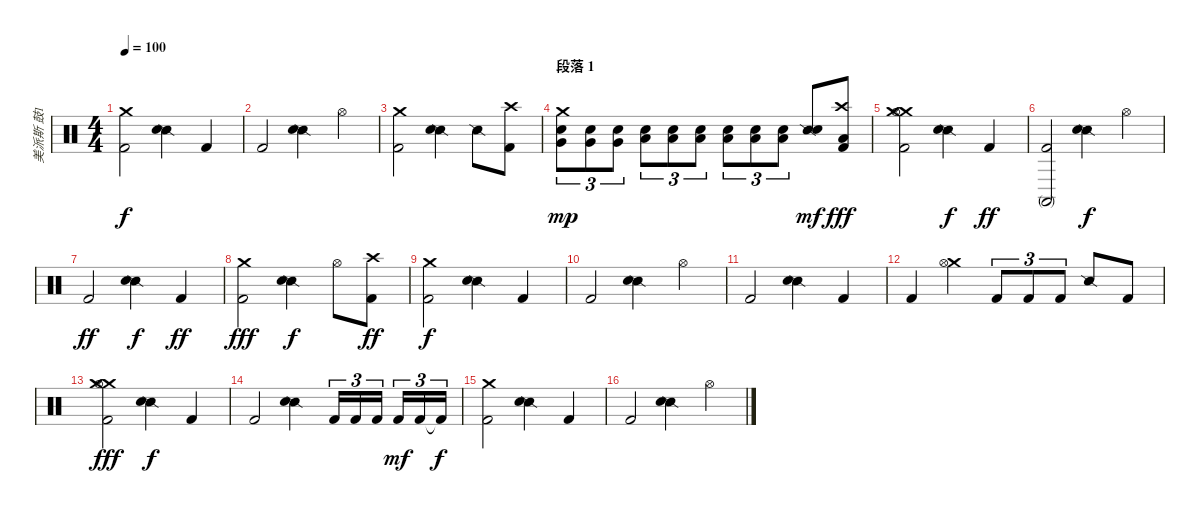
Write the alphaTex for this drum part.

\track ("美派斯 鼓1" "美派斯 鼓1") {instrument percussion}
\staff {score}
\articulation defaults
\ts (4 4)
\tempo 100
\clef neutral
\ks c
("Crash medium (hit)" "Kick (hit) 2").2{dy f} ("Snare (side stick) 2" "Snare (hit) 2").4 "Kick (hit) 2".4 |
"Kick (hit) 2".2 ("Snare (side stick) 2" "Snare (hit) 2").4 "Hi-Hat (open)".4 |
("Crash medium (hit)" "Kick (hit) 2").2 ("Snare (side stick) 2" "Snare (hit) 2").4 "Snare (side stick) 2".8 ("Crash high (hit)" "Kick (hit) 2").8 |
\section ("" "段落 1")
("Crash medium (hit)" "Very Low Tom (hit)" "Snare (hit) 2").8{tu (3 2) dy mp} ("Very Low Tom (hit)" "Snare (hit) 2").8{tu (3 2)} ("Very Low Tom (hit)" "Snare (hit) 2").8{tu (3 2)} ("Low Floor Tom (hit)" "Snare (hit) 2").8{tu (3 2)} ("Low Floor Tom (hit)" "Snare (hit) 2").8{tu (3 2)} ("Low Floor Tom (hit)" "Snare (hit) 2").8{tu (3 2)} ("Low Tom (hit)" "Snare (hit) 2").8{tu (3 2)} ("Low Tom (hit)" "Snare (hit) 2").8{tu (3 2)} ("Low Tom (hit)" "Snare (hit) 2").8{tu (3 2)} ("Snare (side stick) 2" "Snare (hit) 2").8{dy mf} ("Crash high (hit)" "Low Tom (hit)" "Kick (hit) 2").8{dy fff} |
("Crash medium (hit)" "Crash medium (hit)" "Kick (hit) 2" "Hi-Hat (open)").2 ("Snare (side stick) 2" "Snare (hit) 2").4{dy f} "Kick (hit) 2".4{dy ff} |
("Conga high (mute)" "Kick (hit) 2").2 ("Snare (side stick) 2" "Snare (hit) 2").4{dy f} "Hi-Hat (open)".4 |
"Kick (hit) 2".2{dy ff} ("Snare (side stick) 2" "Snare (hit) 2").4{dy f} "Kick (hit) 2".4{dy ff} |
("Crash medium (hit)" "Kick (hit) 2").2{dy fff} ("Snare (side stick) 2" "Snare (hit) 2").4{dy f} "Hi-Hat (open)".8 ("Crash high (hit)" "Kick (hit) 2").8{dy ff} |
("Crash medium (hit)" "Kick (hit) 2").2{dy f} ("Snare (side stick) 2" "Snare (hit) 2").4 "Kick (hit) 2".4 |
"Kick (hit) 2".2 ("Snare (side stick) 2" "Snare (hit) 2").4 "Hi-Hat (open)".4 |
"Kick (hit) 2".2 ("Snare (side stick) 2" "Snare (hit) 2").4 "Kick (hit) 2".4 |
"Kick (hit) 2".4 ("Crash medium (hit)" "Hi-Hat (open)").4 "Kick (hit) 2".8{tu (3 2)} "Kick (hit) 2".8{tu (3 2)} "Kick (hit) 2".8{tu (3 2)} "Snare (side stick) 2".8 "Kick (hit) 2".8 |
("Crash medium (hit)" "Crash medium (hit)" "Kick (hit) 2" "Hi-Hat (open)").2{dy fff} ("Snare (side stick) 2" "Snare (hit) 2").4{dy f} "Kick (hit) 2".4 |
"Kick (hit) 2".2 ("Snare (side stick) 2" "Snare (hit) 2").4 "Kick (hit) 2".16{tu (3 2)} "Kick (hit) 2".16{tu (3 2)} "Kick (hit) 2".16{tu (3 2)} "Kick (hit) 2".16{tu (3 2) dy mf} "Kick (hit) 2".16{tu (3 2)} "Kick (hit) 2"{t}.16{tu (3 2) dy f} |
("Crash medium (hit)" "Kick (hit) 2").2 ("Snare (side stick) 2" "Snare (hit) 2").4 "Kick (hit) 2".4 |
"Kick (hit) 2".2 ("Snare (side stick) 2" "Snare (hit) 2").4 "Hi-Hat (open)".4
